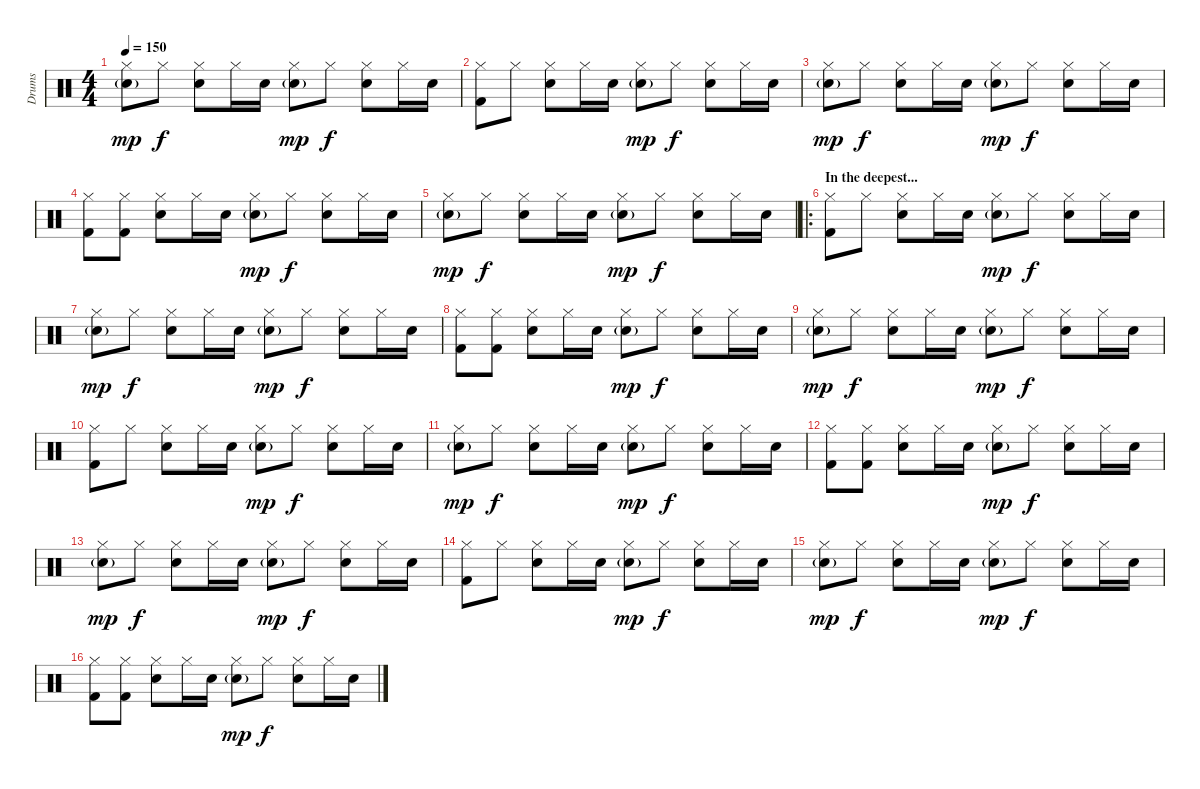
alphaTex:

\track ("Drums" "Drums") {instrument percussion}
\staff {score}
\articulation defaults
\ts (4 4)
\tempo 150
\clef neutral
\ks c
("Hi-Hat (closed)" "Snare (hit) 2"{g}).8{dy mp} "Hi-Hat (closed)".8{dy f} ("Hi-Hat (closed)" "Snare (hit) 2").8 "Hi-Hat (closed)".16 "Snare (hit) 2".16 ("Hi-Hat (closed)" "Snare (hit) 2"{g}).8{dy mp} "Hi-Hat (closed)".8{dy f} ("Hi-Hat (closed)" "Snare (hit) 2").8 "Hi-Hat (closed)".16 "Snare (hit) 2".16 |
("Hi-Hat (closed)" "Kick (hit) 2").8 "Hi-Hat (closed)".8 ("Hi-Hat (closed)" "Snare (hit) 2").8 "Hi-Hat (closed)".16 "Snare (hit) 2".16 ("Hi-Hat (closed)" "Snare (hit) 2"{g}).8{dy mp} "Hi-Hat (closed)".8{dy f} ("Hi-Hat (closed)" "Snare (hit) 2").8 "Hi-Hat (closed)".16 "Snare (hit) 2".16 |
("Hi-Hat (closed)" "Snare (hit) 2"{g}).8{dy mp} "Hi-Hat (closed)".8{dy f} ("Hi-Hat (closed)" "Snare (hit) 2").8 "Hi-Hat (closed)".16 "Snare (hit) 2".16 ("Hi-Hat (closed)" "Snare (hit) 2"{g}).8{dy mp} "Hi-Hat (closed)".8{dy f} ("Hi-Hat (closed)" "Snare (hit) 2").8 "Hi-Hat (closed)".16 "Snare (hit) 2".16 |
("Hi-Hat (closed)" "Kick (hit) 2").8 ("Hi-Hat (closed)" "Kick (hit) 2").8 ("Hi-Hat (closed)" "Snare (hit) 2").8 "Hi-Hat (closed)".16 "Snare (hit) 2".16 ("Hi-Hat (closed)" "Snare (hit) 2"{g}).8{dy mp} "Hi-Hat (closed)".8{dy f} ("Hi-Hat (closed)" "Snare (hit) 2").8 "Hi-Hat (closed)".16 "Snare (hit) 2".16 |
("Hi-Hat (closed)" "Snare (hit) 2"{g}).8{dy mp} "Hi-Hat (closed)".8{dy f} ("Hi-Hat (closed)" "Snare (hit) 2").8 "Hi-Hat (closed)".16 "Snare (hit) 2".16 ("Hi-Hat (closed)" "Snare (hit) 2"{g}).8{dy mp} "Hi-Hat (closed)".8{dy f} ("Hi-Hat (closed)" "Snare (hit) 2").8 "Hi-Hat (closed)".16 "Snare (hit) 2".16 |
\ro
\section ("" "In the deepest...")
("Hi-Hat (closed)" "Kick (hit) 2").8 "Hi-Hat (closed)".8 ("Hi-Hat (closed)" "Snare (hit) 2").8 "Hi-Hat (closed)".16 "Snare (hit) 2".16 ("Hi-Hat (closed)" "Snare (hit) 2"{g}).8{dy mp} "Hi-Hat (closed)".8{dy f} ("Hi-Hat (closed)" "Snare (hit) 2").8 "Hi-Hat (closed)".16 "Snare (hit) 2".16 |
("Hi-Hat (closed)" "Snare (hit) 2"{g}).8{dy mp} "Hi-Hat (closed)".8{dy f} ("Hi-Hat (closed)" "Snare (hit) 2").8 "Hi-Hat (closed)".16 "Snare (hit) 2".16 ("Hi-Hat (closed)" "Snare (hit) 2"{g}).8{dy mp} "Hi-Hat (closed)".8{dy f} ("Hi-Hat (closed)" "Snare (hit) 2").8 "Hi-Hat (closed)".16 "Snare (hit) 2".16 |
("Hi-Hat (closed)" "Kick (hit) 2").8 ("Hi-Hat (closed)" "Kick (hit) 2").8 ("Hi-Hat (closed)" "Snare (hit) 2").8 "Hi-Hat (closed)".16 "Snare (hit) 2".16 ("Hi-Hat (closed)" "Snare (hit) 2"{g}).8{dy mp} "Hi-Hat (closed)".8{dy f} ("Hi-Hat (closed)" "Snare (hit) 2").8 "Hi-Hat (closed)".16 "Snare (hit) 2".16 |
("Hi-Hat (closed)" "Snare (hit) 2"{g}).8{dy mp} "Hi-Hat (closed)".8{dy f} ("Hi-Hat (closed)" "Snare (hit) 2").8 "Hi-Hat (closed)".16 "Snare (hit) 2".16 ("Hi-Hat (closed)" "Snare (hit) 2"{g}).8{dy mp} "Hi-Hat (closed)".8{dy f} ("Hi-Hat (closed)" "Snare (hit) 2").8 "Hi-Hat (closed)".16 "Snare (hit) 2".16 |
("Hi-Hat (closed)" "Kick (hit) 2").8 "Hi-Hat (closed)".8 ("Hi-Hat (closed)" "Snare (hit) 2").8 "Hi-Hat (closed)".16 "Snare (hit) 2".16 ("Hi-Hat (closed)" "Snare (hit) 2"{g}).8{dy mp} "Hi-Hat (closed)".8{dy f} ("Hi-Hat (closed)" "Snare (hit) 2").8 "Hi-Hat (closed)".16 "Snare (hit) 2".16 |
("Hi-Hat (closed)" "Snare (hit) 2"{g}).8{dy mp} "Hi-Hat (closed)".8{dy f} ("Hi-Hat (closed)" "Snare (hit) 2").8 "Hi-Hat (closed)".16 "Snare (hit) 2".16 ("Hi-Hat (closed)" "Snare (hit) 2"{g}).8{dy mp} "Hi-Hat (closed)".8{dy f} ("Hi-Hat (closed)" "Snare (hit) 2").8 "Hi-Hat (closed)".16 "Snare (hit) 2".16 |
("Hi-Hat (closed)" "Kick (hit) 2").8 ("Hi-Hat (closed)" "Kick (hit) 2").8 ("Hi-Hat (closed)" "Snare (hit) 2").8 "Hi-Hat (closed)".16 "Snare (hit) 2".16 ("Hi-Hat (closed)" "Snare (hit) 2"{g}).8{dy mp} "Hi-Hat (closed)".8{dy f} ("Hi-Hat (closed)" "Snare (hit) 2").8 "Hi-Hat (closed)".16 "Snare (hit) 2".16 |
("Hi-Hat (closed)" "Snare (hit) 2"{g}).8{dy mp} "Hi-Hat (closed)".8{dy f} ("Hi-Hat (closed)" "Snare (hit) 2").8 "Hi-Hat (closed)".16 "Snare (hit) 2".16 ("Hi-Hat (closed)" "Snare (hit) 2"{g}).8{dy mp} "Hi-Hat (closed)".8{dy f} ("Hi-Hat (closed)" "Snare (hit) 2").8 "Hi-Hat (closed)".16 "Snare (hit) 2".16 |
("Hi-Hat (closed)" "Kick (hit) 2").8 "Hi-Hat (closed)".8 ("Hi-Hat (closed)" "Snare (hit) 2").8 "Hi-Hat (closed)".16 "Snare (hit) 2".16 ("Hi-Hat (closed)" "Snare (hit) 2"{g}).8{dy mp} "Hi-Hat (closed)".8{dy f} ("Hi-Hat (closed)" "Snare (hit) 2").8 "Hi-Hat (closed)".16 "Snare (hit) 2".16 |
("Hi-Hat (closed)" "Snare (hit) 2"{g}).8{dy mp} "Hi-Hat (closed)".8{dy f} ("Hi-Hat (closed)" "Snare (hit) 2").8 "Hi-Hat (closed)".16 "Snare (hit) 2".16 ("Hi-Hat (closed)" "Snare (hit) 2"{g}).8{dy mp} "Hi-Hat (closed)".8{dy f} ("Hi-Hat (closed)" "Snare (hit) 2").8 "Hi-Hat (closed)".16 "Snare (hit) 2".16 |
("Hi-Hat (closed)" "Kick (hit) 2").8 ("Hi-Hat (closed)" "Kick (hit) 2").8 ("Hi-Hat (closed)" "Snare (hit) 2").8 "Hi-Hat (closed)".16 "Snare (hit) 2".16 ("Hi-Hat (closed)" "Snare (hit) 2"{g}).8{dy mp} "Hi-Hat (closed)".8{dy f} ("Hi-Hat (closed)" "Snare (hit) 2").8 "Hi-Hat (closed)".16 "Snare (hit) 2".16
